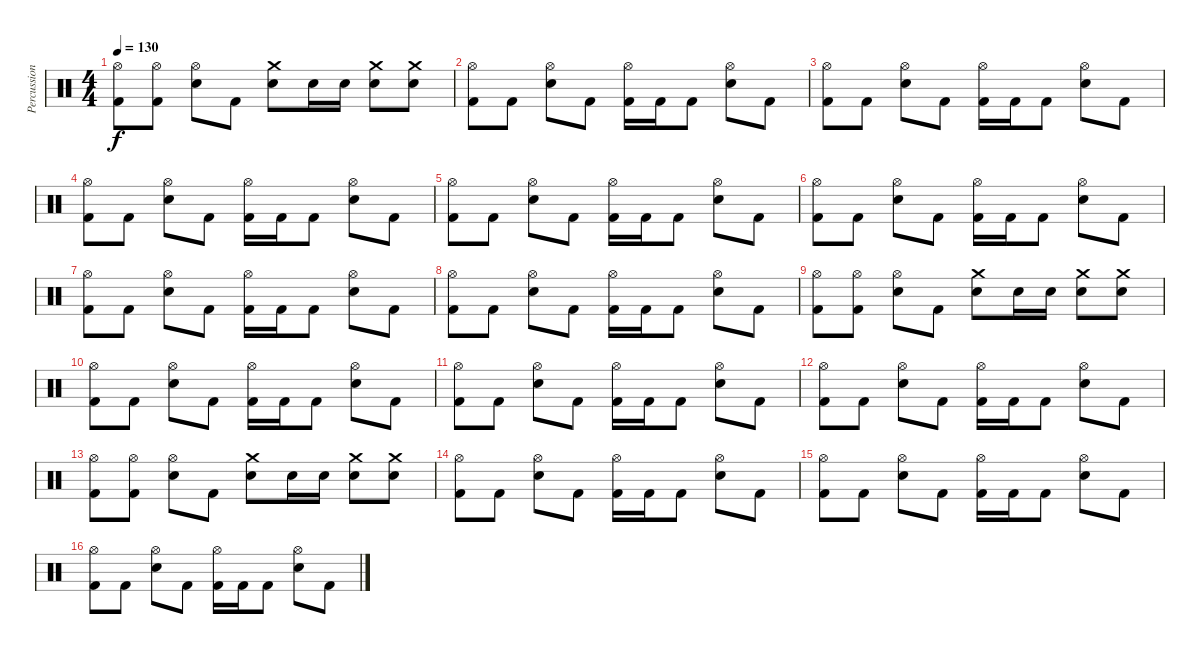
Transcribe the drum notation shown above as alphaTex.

\track ("Percussion" "Percussion") {instrument percussion}
\staff {score}
\articulation defaults
\ts (4 4)
\tempo 130
\clef neutral
\ks c
("Hi-Hat (open)" "Kick (hit) 2").8{dy f} ("Hi-Hat (open)" "Kick (hit) 2").8 ("Hi-Hat (open)" "Electric Snare (hit)").8 "Kick (hit) 2".8 ("Crash medium (hit)" "Electric Snare (hit)").8 "Electric Snare (hit)".16 "Electric Snare (hit)".16 ("Crash medium (hit)" "Electric Snare (hit)").8 ("Crash medium (hit)" "Electric Snare (hit)").8 |
("Hi-Hat (open)" "Kick (hit) 2").8 "Kick (hit) 2".8 ("Hi-Hat (open)" "Electric Snare (hit)").8 "Kick (hit) 2".8 ("Hi-Hat (open)" "Kick (hit) 2").16 "Kick (hit) 2".16 "Kick (hit) 2".8 ("Hi-Hat (open)" "Electric Snare (hit)").8 "Kick (hit) 2".8 |
("Hi-Hat (open)" "Kick (hit) 2").8 "Kick (hit) 2".8 ("Hi-Hat (open)" "Electric Snare (hit)").8 "Kick (hit) 2".8 ("Hi-Hat (open)" "Kick (hit) 2").16 "Kick (hit) 2".16 "Kick (hit) 2".8 ("Hi-Hat (open)" "Electric Snare (hit)").8 "Kick (hit) 2".8 |
("Hi-Hat (open)" "Kick (hit) 2").8 "Kick (hit) 2".8 ("Hi-Hat (open)" "Electric Snare (hit)").8 "Kick (hit) 2".8 ("Hi-Hat (open)" "Kick (hit) 2").16 "Kick (hit) 2".16 "Kick (hit) 2".8 ("Hi-Hat (open)" "Electric Snare (hit)").8 "Kick (hit) 2".8 |
("Hi-Hat (open)" "Kick (hit) 2").8 "Kick (hit) 2".8 ("Hi-Hat (open)" "Electric Snare (hit)").8 "Kick (hit) 2".8 ("Hi-Hat (open)" "Kick (hit) 2").16 "Kick (hit) 2".16 "Kick (hit) 2".8 ("Hi-Hat (open)" "Electric Snare (hit)").8 "Kick (hit) 2".8 |
("Hi-Hat (open)" "Kick (hit) 2").8 "Kick (hit) 2".8 ("Hi-Hat (open)" "Electric Snare (hit)").8 "Kick (hit) 2".8 ("Hi-Hat (open)" "Kick (hit) 2").16 "Kick (hit) 2".16 "Kick (hit) 2".8 ("Hi-Hat (open)" "Electric Snare (hit)").8 "Kick (hit) 2".8 |
("Hi-Hat (open)" "Kick (hit) 2").8 "Kick (hit) 2".8 ("Hi-Hat (open)" "Electric Snare (hit)").8 "Kick (hit) 2".8 ("Hi-Hat (open)" "Kick (hit) 2").16 "Kick (hit) 2".16 "Kick (hit) 2".8 ("Hi-Hat (open)" "Electric Snare (hit)").8 "Kick (hit) 2".8 |
("Hi-Hat (open)" "Kick (hit) 2").8 "Kick (hit) 2".8 ("Hi-Hat (open)" "Electric Snare (hit)").8 "Kick (hit) 2".8 ("Hi-Hat (open)" "Kick (hit) 2").16 "Kick (hit) 2".16 "Kick (hit) 2".8 ("Hi-Hat (open)" "Electric Snare (hit)").8 "Kick (hit) 2".8 |
("Hi-Hat (open)" "Kick (hit) 2").8 ("Hi-Hat (open)" "Kick (hit) 2").8 ("Hi-Hat (open)" "Electric Snare (hit)").8 "Kick (hit) 2".8 ("Crash medium (hit)" "Electric Snare (hit)").8 "Electric Snare (hit)".16 "Electric Snare (hit)".16 ("Crash medium (hit)" "Electric Snare (hit)").8 ("Crash medium (hit)" "Electric Snare (hit)").8 |
("Hi-Hat (open)" "Kick (hit) 2").8 "Kick (hit) 2".8 ("Hi-Hat (open)" "Electric Snare (hit)").8 "Kick (hit) 2".8 ("Hi-Hat (open)" "Kick (hit) 2").16 "Kick (hit) 2".16 "Kick (hit) 2".8 ("Hi-Hat (open)" "Electric Snare (hit)").8 "Kick (hit) 2".8 |
("Hi-Hat (open)" "Kick (hit) 2").8 "Kick (hit) 2".8 ("Hi-Hat (open)" "Electric Snare (hit)").8 "Kick (hit) 2".8 ("Hi-Hat (open)" "Kick (hit) 2").16 "Kick (hit) 2".16 "Kick (hit) 2".8 ("Hi-Hat (open)" "Electric Snare (hit)").8 "Kick (hit) 2".8 |
("Hi-Hat (open)" "Kick (hit) 2").8 "Kick (hit) 2".8 ("Hi-Hat (open)" "Electric Snare (hit)").8 "Kick (hit) 2".8 ("Hi-Hat (open)" "Kick (hit) 2").16 "Kick (hit) 2".16 "Kick (hit) 2".8 ("Hi-Hat (open)" "Electric Snare (hit)").8 "Kick (hit) 2".8 |
("Hi-Hat (open)" "Kick (hit) 2").8 ("Hi-Hat (open)" "Kick (hit) 2").8 ("Hi-Hat (open)" "Electric Snare (hit)").8 "Kick (hit) 2".8 ("Crash medium (hit)" "Electric Snare (hit)").8 "Electric Snare (hit)".16 "Electric Snare (hit)".16 ("Crash medium (hit)" "Electric Snare (hit)").8 ("Crash medium (hit)" "Electric Snare (hit)").8 |
("Hi-Hat (open)" "Kick (hit) 2").8 "Kick (hit) 2".8 ("Hi-Hat (open)" "Electric Snare (hit)").8 "Kick (hit) 2".8 ("Hi-Hat (open)" "Kick (hit) 2").16 "Kick (hit) 2".16 "Kick (hit) 2".8 ("Hi-Hat (open)" "Electric Snare (hit)").8 "Kick (hit) 2".8 |
("Hi-Hat (open)" "Kick (hit) 2").8 "Kick (hit) 2".8 ("Hi-Hat (open)" "Electric Snare (hit)").8 "Kick (hit) 2".8 ("Hi-Hat (open)" "Kick (hit) 2").16 "Kick (hit) 2".16 "Kick (hit) 2".8 ("Hi-Hat (open)" "Electric Snare (hit)").8 "Kick (hit) 2".8 |
("Hi-Hat (open)" "Kick (hit) 2").8 "Kick (hit) 2".8 ("Hi-Hat (open)" "Electric Snare (hit)").8 "Kick (hit) 2".8 ("Hi-Hat (open)" "Kick (hit) 2").16 "Kick (hit) 2".16 "Kick (hit) 2".8 ("Hi-Hat (open)" "Electric Snare (hit)").8 "Kick (hit) 2".8
